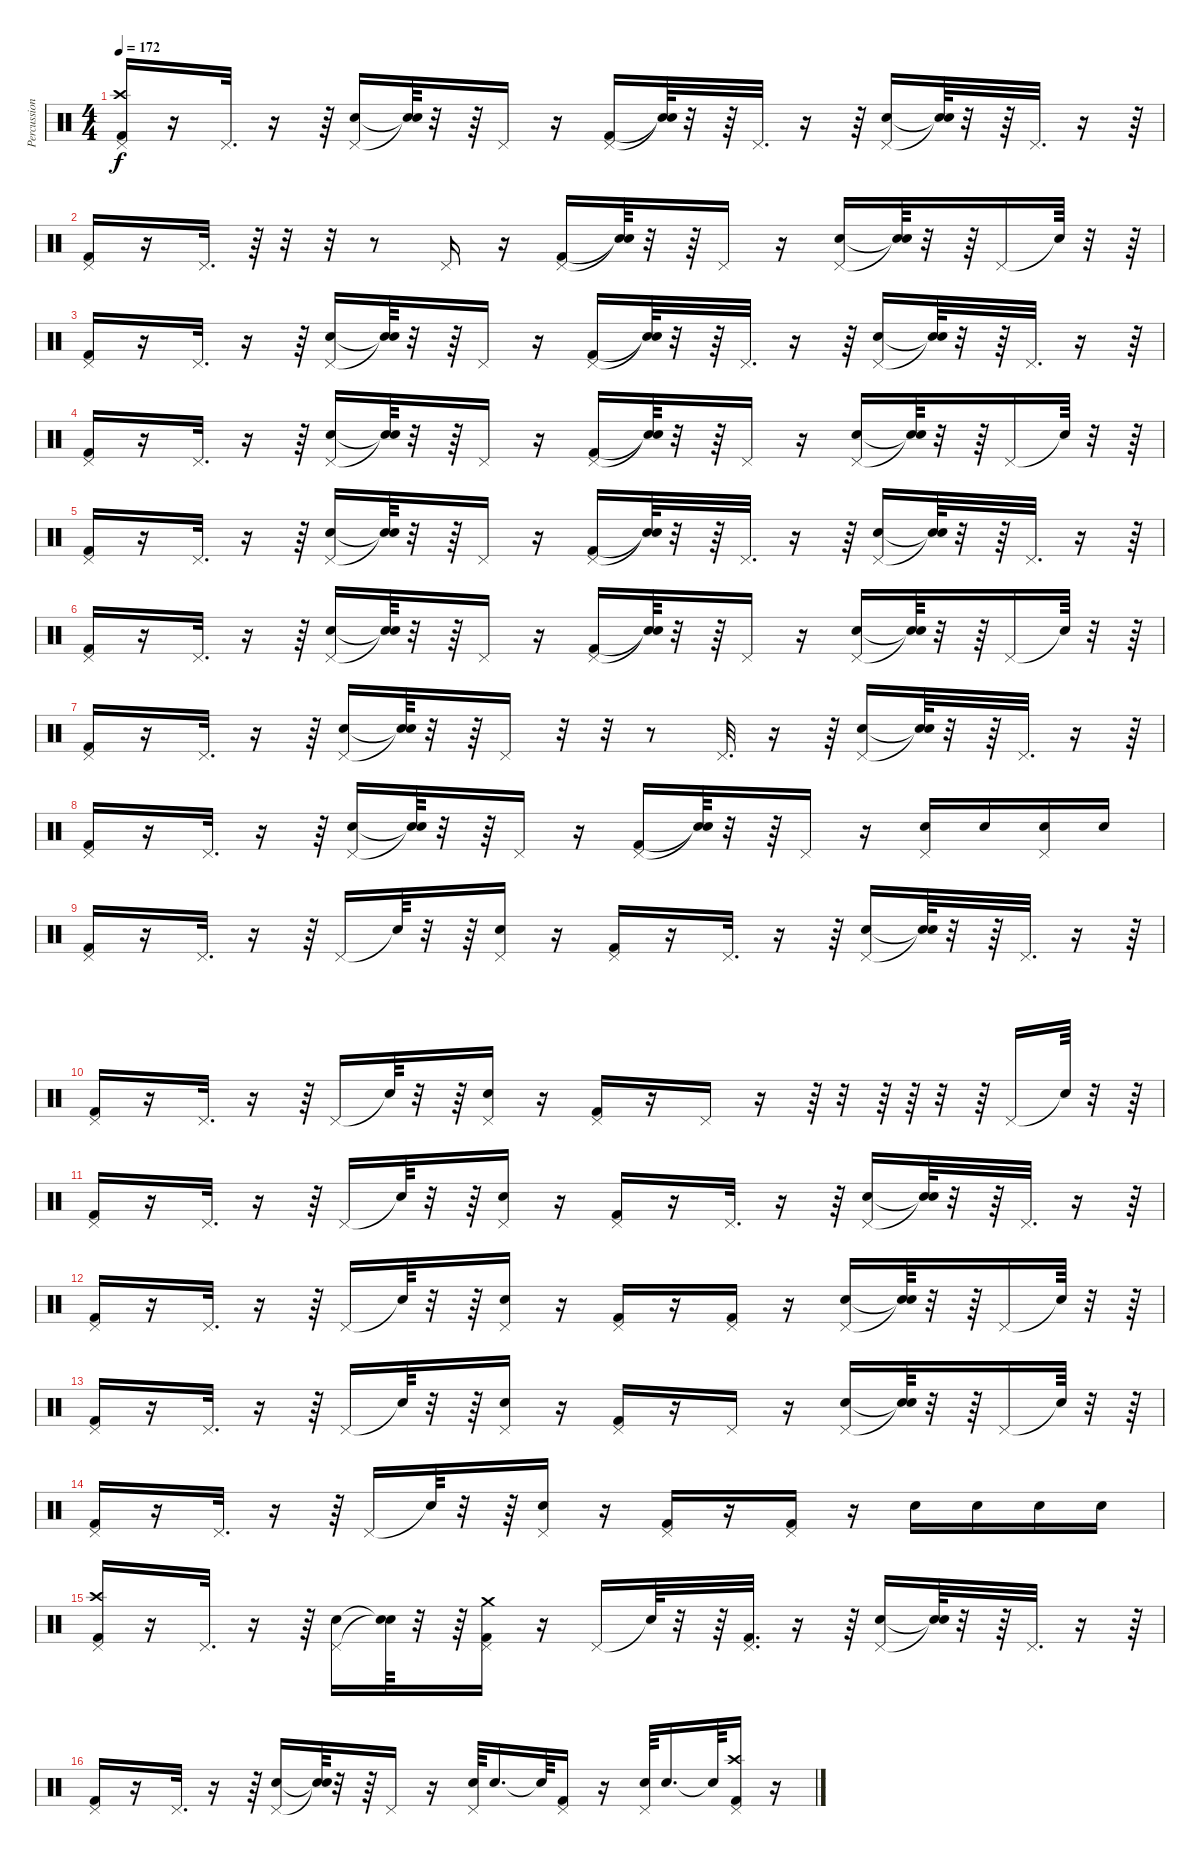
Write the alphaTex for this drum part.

\track ("Percussions" "Percussion") {instrument percussion}
\staff {score}
\articulation defaults
\ts (4 4)
\tempo 172
\clef neutral
\ks c
("Pedal Hi-Hat (hit)" "Crash high (hit)" "Kick (hit) 2").16{dy f} r.16 "Pedal Hi-Hat (hit)".32{d} r.16 r.64 ("Pedal Hi-Hat (hit)" "Snare (hit) 2").16 ("Snare (hit)"{t} "Snare (hit)"{t}).64 r.32 r.64 "Pedal Hi-Hat (hit)".16 r.16 ("Pedal Hi-Hat (hit)" "Kick (hit) 2").16 ("Snare (hit)"{t} "Snare (hit)"{t}).64 r.32 r.64 "Pedal Hi-Hat (hit)".32{d} r.16 r.64 ("Pedal Hi-Hat (hit)" "Snare (hit) 2").16 ("Snare (hit)"{t} "Snare (hit)"{t}).64 r.32 r.64 "Pedal Hi-Hat (hit)".32{d} r.16 r.64 |
("Pedal Hi-Hat (hit)" "Kick (hit) 2").16 r.16 "Pedal Hi-Hat (hit)".32{d} r.64 r.32 r.32 r.8 "Pedal Hi-Hat (hit)".16 r.16 ("Pedal Hi-Hat (hit)" "Kick (hit) 2").16 ("Snare (hit)"{t} "Snare (hit)"{t}).64 r.32 r.64 "Pedal Hi-Hat (hit)".16 r.16 ("Pedal Hi-Hat (hit)" "Snare (hit) 2").16 ("Snare (hit)"{t} "Snare (hit)"{t}).64 r.32 r.64 "Pedal Hi-Hat (hit)".16 "Snare (hit)"{t}.64 r.32 r.64 |
("Pedal Hi-Hat (hit)" "Kick (hit) 2").16 r.16 "Pedal Hi-Hat (hit)".32{d} r.16 r.64 ("Pedal Hi-Hat (hit)" "Snare (hit) 2").16 ("Snare (hit)"{t} "Snare (hit)"{t}).64 r.32 r.64 "Pedal Hi-Hat (hit)".16 r.16 ("Pedal Hi-Hat (hit)" "Kick (hit) 2").16 ("Snare (hit)"{t} "Snare (hit)"{t}).64 r.32 r.64 "Pedal Hi-Hat (hit)".32{d} r.16 r.64 ("Pedal Hi-Hat (hit)" "Snare (hit) 2").16 ("Snare (hit)"{t} "Snare (hit)"{t}).64 r.32 r.64 "Pedal Hi-Hat (hit)".32{d} r.16 r.64 |
("Pedal Hi-Hat (hit)" "Kick (hit) 2").16 r.16 "Pedal Hi-Hat (hit)".32{d} r.16 r.64 ("Pedal Hi-Hat (hit)" "Snare (hit) 2").16 ("Snare (hit)"{t} "Snare (hit)"{t}).64 r.32 r.64 "Pedal Hi-Hat (hit)".16 r.16 ("Pedal Hi-Hat (hit)" "Kick (hit) 2").16 ("Snare (hit)"{t} "Snare (hit)"{t}).64 r.32 r.64 "Pedal Hi-Hat (hit)".16 r.16 ("Pedal Hi-Hat (hit)" "Snare (hit) 2").16 ("Snare (hit)"{t} "Snare (hit)"{t}).64 r.32 r.64 "Pedal Hi-Hat (hit)".16 "Snare (hit)"{t}.64 r.32 r.64 |
("Pedal Hi-Hat (hit)" "Kick (hit) 2").16 r.16 "Pedal Hi-Hat (hit)".32{d} r.16 r.64 ("Pedal Hi-Hat (hit)" "Snare (hit) 2").16 ("Snare (hit)"{t} "Snare (hit)"{t}).64 r.32 r.64 "Pedal Hi-Hat (hit)".16 r.16 ("Pedal Hi-Hat (hit)" "Kick (hit) 2").16 ("Snare (hit)"{t} "Snare (hit)"{t}).64 r.32 r.64 "Pedal Hi-Hat (hit)".32{d} r.16 r.64 ("Pedal Hi-Hat (hit)" "Snare (hit) 2").16 ("Snare (hit)"{t} "Snare (hit)"{t}).64 r.32 r.64 "Pedal Hi-Hat (hit)".32{d} r.16 r.64 |
("Pedal Hi-Hat (hit)" "Kick (hit) 2").16 r.16 "Pedal Hi-Hat (hit)".32{d} r.16 r.64 ("Pedal Hi-Hat (hit)" "Snare (hit) 2").16 ("Snare (hit)"{t} "Snare (hit)"{t}).64 r.32 r.64 "Pedal Hi-Hat (hit)".16 r.16 ("Pedal Hi-Hat (hit)" "Kick (hit) 2").16 ("Snare (hit)"{t} "Snare (hit)"{t}).64 r.32 r.64 "Pedal Hi-Hat (hit)".16 r.16 ("Pedal Hi-Hat (hit)" "Snare (hit) 2").16 ("Snare (hit)"{t} "Snare (hit)"{t}).64 r.32 r.64 "Pedal Hi-Hat (hit)".16 "Snare (hit)"{t}.64 r.32 r.64 |
("Pedal Hi-Hat (hit)" "Kick (hit) 2").16 r.16 "Pedal Hi-Hat (hit)".32{d} r.16 r.64 ("Pedal Hi-Hat (hit)" "Snare (hit) 2").16 ("Snare (hit)"{t} "Snare (hit)"{t}).64 r.32 r.64 "Pedal Hi-Hat (hit)".16 r.32 r.32 r.8 "Pedal Hi-Hat (hit)".32{d} r.16 r.64 ("Pedal Hi-Hat (hit)" "Snare (hit) 2").16 ("Snare (hit)"{t} "Snare (hit)"{t}).64 r.32 r.64 "Pedal Hi-Hat (hit)".32{d} r.16 r.64 |
("Pedal Hi-Hat (hit)" "Kick (hit) 2").16 r.16 "Pedal Hi-Hat (hit)".32{d} r.16 r.64 ("Pedal Hi-Hat (hit)" "Snare (hit) 2").16 ("Snare (hit)"{t} "Snare (hit)"{t}).64 r.32 r.64 "Pedal Hi-Hat (hit)".16 r.16 ("Pedal Hi-Hat (hit)" "Kick (hit) 2").16 ("Snare (hit)"{t} "Snare (hit)"{t}).64 r.32 r.64 "Pedal Hi-Hat (hit)".16 r.16 ("Snare (hit) 2" "Pedal Hi-Hat (hit)").16 "Snare (hit) 2".16 ("Snare (hit) 2" "Pedal Hi-Hat (hit)").16 "Snare (hit) 2".16 |
("Kick (hit) 2" "Pedal Hi-Hat (hit)").16 r.16 "Pedal Hi-Hat (hit)".32{d} r.16 r.64 "Pedal Hi-Hat (hit)".16 "Snare (hit)"{t}.64 r.32 r.64 ("Pedal Hi-Hat (hit)" "Snare (hit) 2").16 r.16 ("Kick (hit) 2" "Pedal Hi-Hat (hit)").16 r.16 "Pedal Hi-Hat (hit)".32{d} r.16 r.64 ("Pedal Hi-Hat (hit)" "Snare (hit) 2").16 ("Snare (hit)"{t} "Snare (hit)"{t}).64 r.32 r.64 "Pedal Hi-Hat (hit)".32{d} r.16 r.64 |
("Kick (hit) 2" "Pedal Hi-Hat (hit)").16 r.16 "Pedal Hi-Hat (hit)".32{d} r.16 r.64 "Pedal Hi-Hat (hit)".16 "Snare (hit)"{t}.64 r.32 r.64 ("Pedal Hi-Hat (hit)" "Snare (hit) 2").16 r.16 ("Kick (hit) 2" "Pedal Hi-Hat (hit)").16 r.16 "Pedal Hi-Hat (hit)".16 r.16 r.64 r.32 r.64 r.64 r.32 r.64 "Pedal Hi-Hat (hit)".16 "Snare (hit)"{t}.64 r.32 r.64 |
("Kick (hit) 2" "Pedal Hi-Hat (hit)").16 r.16 "Pedal Hi-Hat (hit)".32{d} r.16 r.64 "Pedal Hi-Hat (hit)".16 "Snare (hit)"{t}.64 r.32 r.64 ("Pedal Hi-Hat (hit)" "Snare (hit) 2").16 r.16 ("Kick (hit) 2" "Pedal Hi-Hat (hit)").16 r.16 "Pedal Hi-Hat (hit)".32{d} r.16 r.64 ("Pedal Hi-Hat (hit)" "Snare (hit) 2").16 ("Snare (hit)"{t} "Snare (hit)"{t}).64 r.32 r.64 "Pedal Hi-Hat (hit)".32{d} r.16 r.64 |
("Kick (hit) 2" "Pedal Hi-Hat (hit)").16 r.16 "Pedal Hi-Hat (hit)".32{d} r.16 r.64 "Pedal Hi-Hat (hit)".16 "Snare (hit)"{t}.64 r.32 r.64 ("Pedal Hi-Hat (hit)" "Snare (hit) 2").16 r.16 ("Kick (hit) 2" "Pedal Hi-Hat (hit)").16 r.16 ("Pedal Hi-Hat (hit)" "Kick (hit) 2").16 r.16 ("Pedal Hi-Hat (hit)" "Snare (hit) 2").16 ("Snare (hit)"{t} "Snare (hit)"{t}).64 r.32 r.64 "Pedal Hi-Hat (hit)".16 "Snare (hit)"{t}.64 r.32 r.64 |
("Kick (hit) 2" "Pedal Hi-Hat (hit)").16 r.16 "Pedal Hi-Hat (hit)".32{d} r.16 r.64 "Pedal Hi-Hat (hit)".16 "Snare (hit)"{t}.64 r.32 r.64 ("Pedal Hi-Hat (hit)" "Snare (hit) 2").16 r.16 ("Kick (hit) 2" "Pedal Hi-Hat (hit)").16 r.16 "Pedal Hi-Hat (hit)".16 r.16 ("Pedal Hi-Hat (hit)" "Snare (hit) 2").16 ("Snare (hit)"{t} "Snare (hit)"{t}).64 r.32 r.64 "Pedal Hi-Hat (hit)".16 "Snare (hit)"{t}.64 r.32 r.64 |
("Kick (hit) 2" "Pedal Hi-Hat (hit)").16 r.16 "Pedal Hi-Hat (hit)".32{d} r.16 r.64 "Pedal Hi-Hat (hit)".16 "Snare (hit)"{t}.64 r.32 r.64 ("Pedal Hi-Hat (hit)" "Snare (hit) 2").16 r.16 ("Kick (hit) 2" "Pedal Hi-Hat (hit)").16 r.16 ("Pedal Hi-Hat (hit)" "Kick (hit) 2").16 r.16 "Snare (hit) 2".16 "Snare (hit) 2".16 "Snare (hit) 2".16 "Snare (hit) 2".16 |
("Crash high (hit)" "Pedal Hi-Hat (hit)" "Kick (hit) 2").16 r.16 "Pedal Hi-Hat (hit)".32{d} r.16 r.64 ("Pedal Hi-Hat (hit)" "Snare (hit) 2").16 ("Snare (hit)"{t} "Snare (hit)"{t}).64 r.32 r.64 ("Pedal Hi-Hat (hit)" "Crash medium (hit)" "Kick (hit) 2").16 r.16 "Pedal Hi-Hat (hit)".16 "Snare (hit)"{t}.64 r.32 r.64 ("Pedal Hi-Hat (hit)" "Kick (hit) 2").32{d} r.16 r.64 ("Pedal Hi-Hat (hit)" "Snare (hit) 2").16 ("Snare (hit)"{t} "Snare (hit)"{t}).64 r.32 r.64 "Pedal Hi-Hat (hit)".32{d} r.16 r.64 |
("Pedal Hi-Hat (hit)" "Kick (hit) 2").16 r.16 "Pedal Hi-Hat (hit)".32{d} r.16 r.64 ("Pedal Hi-Hat (hit)" "Snare (hit) 2").16 ("Snare (hit)"{t} "Snare (hit)"{t}).64 r.32 r.64 "Pedal Hi-Hat (hit)".16 r.16 ("Pedal Hi-Hat (hit)" "Snare (hit) 2").64 "Snare (hit) 2".16{d} "Snare (hit)"{t}.64 ("Pedal Hi-Hat (hit)" "Kick (hit) 2").16 r.16 ("Pedal Hi-Hat (hit)" "Snare (hit) 2").64 "Snare (hit) 2".16{d} "Snare (hit)"{t}.64 ("Crash high (hit)" "Pedal Hi-Hat (hit)" "Kick (hit) 2").16 r.16
